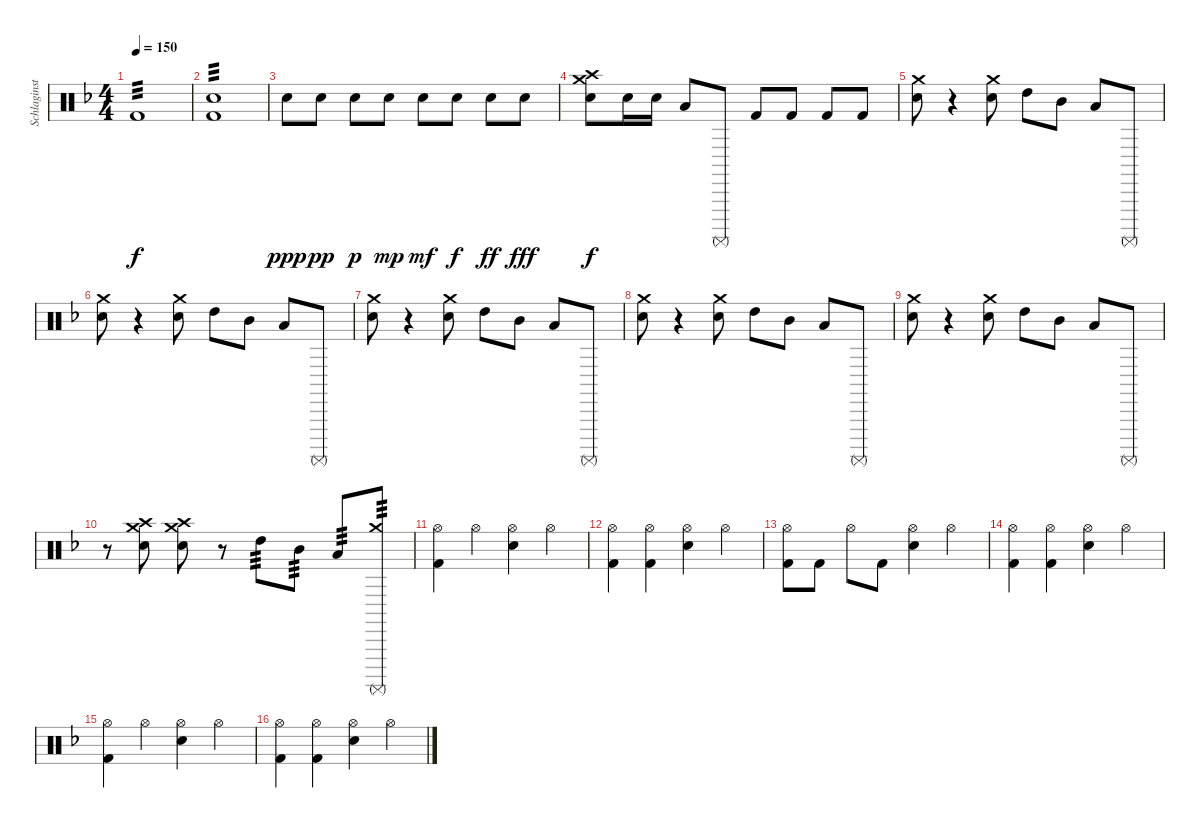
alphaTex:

\track ("Schlaginstrumente - Auswahl" "Schlaginst") {instrument percussion}
\staff {score}
\articulation defaults
\ts (4 4)
\tempo 150
\clef neutral
\ks f "Kick (hit) 2".1{tp 3 dy f}
|
("Kick (hit) 2" "Snare (hit) 2").1{tp 3} |
"Snare (hit) 2".8{dy ppp} "Snare (hit) 2".8{dy pp} "Snare (hit) 2".8{dy p} "Snare (hit) 2".8{dy mp} "Snare (hit) 2".8{dy mf} "Snare (hit) 2".8{dy f} "Snare (hit) 2".8{dy ff} "Snare (hit) 2".8{dy fff} |
("Snare (hit) 2" "Crash high (hit)" "Crash medium (hit)").8{dy f} "Snare (hit) 2".16 "Snare (hit) 2".16 "Low Tom (hit)".8 "Surdo (mute)".8 "Kick (hit) 2".8 "Kick (hit) 2".8 "Kick (hit) 2".8 "Kick (hit) 2".8 |
("Crash medium (hit)" "Snare (hit) 2").8 r.4 ("Snare (hit) 2" "Crash medium (hit)").8 "High Tom (hit)".8 "Mid Tom (hit)".8 "Low Tom (hit)".8 "Surdo (mute)".8 |
("Crash medium (hit)" "Snare (hit) 2").8 r.4 ("Snare (hit) 2" "Crash medium (hit)").8 "High Tom (hit)".8 "Mid Tom (hit)".8 "Low Tom (hit)".8 "Surdo (mute)".8 |
("Crash medium (hit)" "Snare (hit) 2").8 r.4 ("Snare (hit) 2" "Crash medium (hit)").8 "High Tom (hit)".8 "Mid Tom (hit)".8 "Low Tom (hit)".8 "Surdo (mute)".8 |
("Crash medium (hit)" "Snare (hit) 2").8 r.4 ("Snare (hit) 2" "Crash medium (hit)").8 "High Tom (hit)".8 "Mid Tom (hit)".8 "Low Tom (hit)".8 "Surdo (mute)".8 |
("Crash medium (hit)" "Snare (hit) 2").8 r.4 ("Snare (hit) 2" "Crash medium (hit)").8 "High Tom (hit)".8 "Mid Tom (hit)".8 "Low Tom (hit)".8 "Surdo (mute)".8 |
r.8 ("Snare (hit) 2" "Crash medium (hit)" "Crash high (hit)").8 ("Crash high (hit)" "Crash medium (hit)" "Snare (hit) 2").8 r.8 "High Tom (hit)".8{tp 3} "Mid Tom (hit)".8{tp 3} "Low Tom (hit)".8{tp 3} ("Surdo (mute)" "Crash medium (hit)").8{tp 3} |
("Kick (hit) 2" "Hi-Hat (open)").4 "Hi-Hat (open)".4 ("Hi-Hat (open)" "Snare (hit) 2").4 "Hi-Hat (open)".4 |
("Kick (hit) 2" "Hi-Hat (open)").4 ("Kick (hit) 2" "Hi-Hat (open)").4 ("Hi-Hat (open)" "Snare (hit) 2").4 "Hi-Hat (open)".4 |
("Hi-Hat (open)" "Kick (hit) 2").8 "Kick (hit) 2".8 "Hi-Hat (open)".8 "Kick (hit) 2".8 ("Hi-Hat (open)" "Snare (hit) 2").4 "Hi-Hat (open)".4 |
("Kick (hit) 2" "Hi-Hat (open)").4 ("Kick (hit) 2" "Hi-Hat (open)").4 ("Hi-Hat (open)" "Snare (hit) 2").4 "Hi-Hat (open)".4 |
("Kick (hit) 2" "Hi-Hat (open)").4 "Hi-Hat (open)".4 ("Hi-Hat (open)" "Snare (hit) 2").4 "Hi-Hat (open)".4 |
("Kick (hit) 2" "Hi-Hat (open)").4 ("Kick (hit) 2" "Hi-Hat (open)").4 ("Hi-Hat (open)" "Snare (hit) 2").4 "Hi-Hat (open)".4
